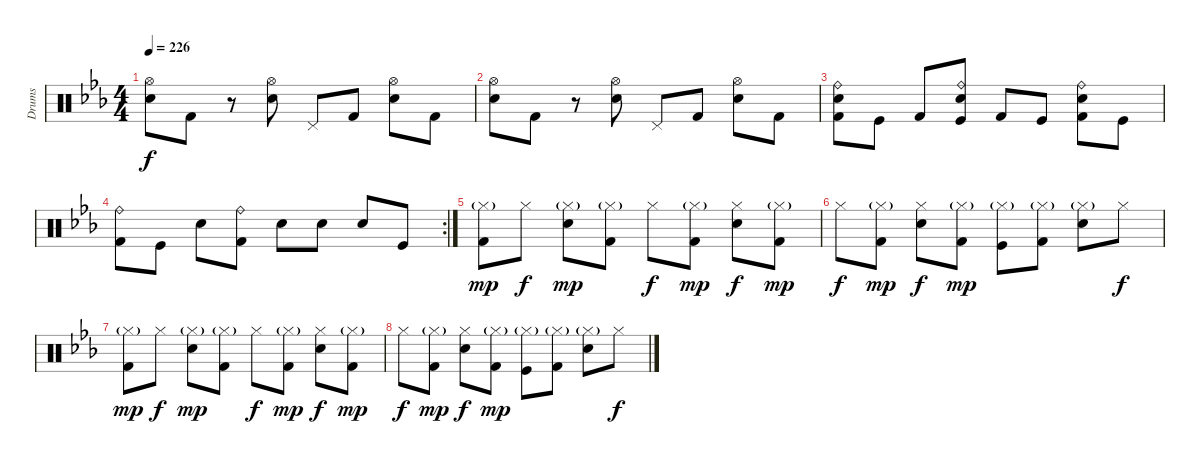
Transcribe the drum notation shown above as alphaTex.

\track ("Drums" "Drums") {instrument percussion}
\staff {score}
\articulation defaults
\ts (4 4)
\tempo 226
\clef neutral
\ks cminor
("Hi-Hat (open)" "Snare (hit) 2").8{dy f} "Kick (hit) 2".8 r.8 ("Hi-Hat (open)" "Snare (hit) 2").8 "Pedal Hi-Hat (hit)".8 "Kick (hit) 2".8 ("Hi-Hat (open)" "Snare (hit) 2").8 "Kick (hit) 2".8 |
("Hi-Hat (open)" "Snare (hit) 2").8 "Kick (hit) 2".8 r.8 ("Hi-Hat (open)" "Snare (hit) 2").8 "Pedal Hi-Hat (hit)".8 "Kick (hit) 2".8 ("Hi-Hat (open)" "Snare (hit) 2").8 "Kick (hit) 2".8 |
("Ride (bell)" "Snare (hit) 2" "Kick (hit) 2").8 "Kick (hit)".8 "Kick (hit) 2".8 ("Ride (bell)" "Snare (hit) 2" "Kick (hit)").8 "Kick (hit) 2".8 "Kick (hit)".8 ("Ride (bell)" "Snare (hit) 2" "Kick (hit) 2").8 "Kick (hit)".8 |
\rc 2
("Ride (bell)" "Kick (hit) 2").8 "Kick (hit)".8 "Snare (hit) 2".8 ("Ride (bell)" "Kick (hit) 2").8 "Snare (hit) 2".8 "Snare (hit) 2".8 "Snare (hit) 2".8 "Kick (hit)".8 |
("Hi-Hat (closed)"{g} "Kick (hit) 2").8{dy mp} "Hi-Hat (closed)".8{dy f} ("Hi-Hat (closed)"{g} "Snare (hit) 2").8{dy mp} ("Hi-Hat (closed)"{g} "Kick (hit) 2").8 "Hi-Hat (closed)".8{dy f} ("Hi-Hat (closed)"{g} "Kick (hit) 2").8{dy mp} ("Hi-Hat (closed)" "Snare (hit) 2").8{dy f} ("Hi-Hat (closed)"{g} "Kick (hit) 2").8{dy mp} |
"Hi-Hat (closed)".8{dy f} ("Hi-Hat (closed)"{g} "Kick (hit) 2").8{dy mp} ("Hi-Hat (closed)" "Snare (hit) 2").8{dy f} ("Hi-Hat (closed)"{g} "Kick (hit) 2").8{dy mp} ("Hi-Hat (closed)"{g} "Kick (hit)").8 ("Hi-Hat (closed)"{g} "Kick (hit) 2").8 ("Hi-Hat (closed)"{g} "Snare (hit) 2").8 "Hi-Hat (closed)".8{dy f} |
("Hi-Hat (closed)"{g} "Kick (hit) 2").8{dy mp} "Hi-Hat (closed)".8{dy f} ("Hi-Hat (closed)"{g} "Snare (hit) 2").8{dy mp} ("Hi-Hat (closed)"{g} "Kick (hit) 2").8 "Hi-Hat (closed)".8{dy f} ("Hi-Hat (closed)"{g} "Kick (hit) 2").8{dy mp} ("Hi-Hat (closed)" "Snare (hit) 2").8{dy f} ("Hi-Hat (closed)"{g} "Kick (hit) 2").8{dy mp} |
"Hi-Hat (closed)".8{dy f} ("Hi-Hat (closed)"{g} "Kick (hit) 2").8{dy mp} ("Hi-Hat (closed)" "Snare (hit) 2").8{dy f} ("Hi-Hat (closed)"{g} "Kick (hit) 2").8{dy mp} ("Hi-Hat (closed)"{g} "Kick (hit)").8 ("Hi-Hat (closed)"{g} "Kick (hit) 2").8 ("Hi-Hat (closed)"{g} "Snare (hit) 2").8 "Hi-Hat (closed)".8{dy f}
